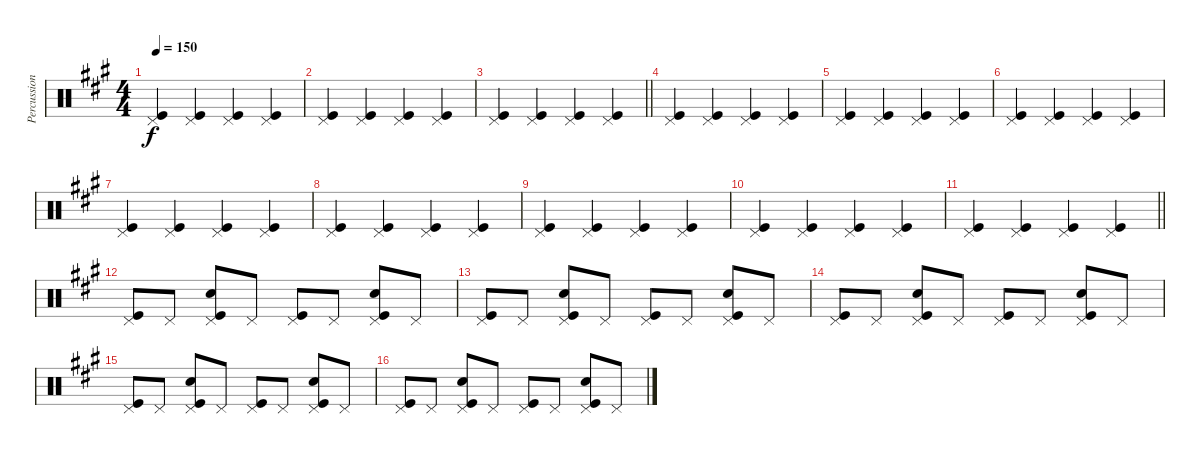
\track ("Percussions" "Percussion") {instrument percussion}
\staff {score}
\articulation defaults
\ts (4 4)
\tempo 150
\clef neutral
\ks a
("Pedal Hi-Hat (hit)" "Kick (hit)").4{dy f} ("Pedal Hi-Hat (hit)" "Kick (hit)").4 ("Pedal Hi-Hat (hit)" "Kick (hit)").4 ("Pedal Hi-Hat (hit)" "Kick (hit)").4 |
("Pedal Hi-Hat (hit)" "Kick (hit)").4 ("Pedal Hi-Hat (hit)" "Kick (hit)").4 ("Pedal Hi-Hat (hit)" "Kick (hit)").4 ("Pedal Hi-Hat (hit)" "Kick (hit)").4 |
\barLineRight lightlight
("Pedal Hi-Hat (hit)" "Kick (hit)").4 ("Pedal Hi-Hat (hit)" "Kick (hit)").4 ("Pedal Hi-Hat (hit)" "Kick (hit)").4 ("Pedal Hi-Hat (hit)" "Kick (hit)").4 |
("Pedal Hi-Hat (hit)" "Kick (hit)").4 ("Pedal Hi-Hat (hit)" "Kick (hit)").4 ("Pedal Hi-Hat (hit)" "Kick (hit)").4 ("Pedal Hi-Hat (hit)" "Kick (hit)").4 |
("Pedal Hi-Hat (hit)" "Kick (hit)").4 ("Pedal Hi-Hat (hit)" "Kick (hit)").4 ("Pedal Hi-Hat (hit)" "Kick (hit)").4 ("Pedal Hi-Hat (hit)" "Kick (hit)").4 |
("Pedal Hi-Hat (hit)" "Kick (hit)").4 ("Pedal Hi-Hat (hit)" "Kick (hit)").4 ("Pedal Hi-Hat (hit)" "Kick (hit)").4 ("Pedal Hi-Hat (hit)" "Kick (hit)").4 |
("Pedal Hi-Hat (hit)" "Kick (hit)").4 ("Pedal Hi-Hat (hit)" "Kick (hit)").4 ("Pedal Hi-Hat (hit)" "Kick (hit)").4 ("Pedal Hi-Hat (hit)" "Kick (hit)").4 |
("Pedal Hi-Hat (hit)" "Kick (hit)").4 ("Pedal Hi-Hat (hit)" "Kick (hit)").4 ("Pedal Hi-Hat (hit)" "Kick (hit)").4 ("Pedal Hi-Hat (hit)" "Kick (hit)").4 |
("Pedal Hi-Hat (hit)" "Kick (hit)").4 ("Pedal Hi-Hat (hit)" "Kick (hit)").4 ("Pedal Hi-Hat (hit)" "Kick (hit)").4 ("Pedal Hi-Hat (hit)" "Kick (hit)").4 |
("Pedal Hi-Hat (hit)" "Kick (hit)").4 ("Pedal Hi-Hat (hit)" "Kick (hit)").4 ("Pedal Hi-Hat (hit)" "Kick (hit)").4 ("Pedal Hi-Hat (hit)" "Kick (hit)").4 |
\barLineRight lightlight
("Pedal Hi-Hat (hit)" "Kick (hit)").4 ("Pedal Hi-Hat (hit)" "Kick (hit)").4 ("Pedal Hi-Hat (hit)" "Kick (hit)").4 ("Pedal Hi-Hat (hit)" "Kick (hit)").4 |
("Kick (hit)" "Pedal Hi-Hat (hit)").8 "Pedal Hi-Hat (hit)".8 ("Snare (hit) 2" "Kick (hit)" "Pedal Hi-Hat (hit)").8 "Pedal Hi-Hat (hit)".8 ("Kick (hit)" "Pedal Hi-Hat (hit)").8 "Pedal Hi-Hat (hit)".8 ("Snare (hit) 2" "Kick (hit)" "Pedal Hi-Hat (hit)").8 "Pedal Hi-Hat (hit)".8 |
("Kick (hit)" "Pedal Hi-Hat (hit)").8 "Pedal Hi-Hat (hit)".8 ("Snare (hit) 2" "Kick (hit)" "Pedal Hi-Hat (hit)").8 "Pedal Hi-Hat (hit)".8 ("Kick (hit)" "Pedal Hi-Hat (hit)").8 "Pedal Hi-Hat (hit)".8 ("Snare (hit) 2" "Kick (hit)" "Pedal Hi-Hat (hit)").8 "Pedal Hi-Hat (hit)".8 |
("Kick (hit)" "Pedal Hi-Hat (hit)").8 "Pedal Hi-Hat (hit)".8 ("Snare (hit) 2" "Kick (hit)" "Pedal Hi-Hat (hit)").8 "Pedal Hi-Hat (hit)".8 ("Kick (hit)" "Pedal Hi-Hat (hit)").8 "Pedal Hi-Hat (hit)".8 ("Snare (hit) 2" "Kick (hit)" "Pedal Hi-Hat (hit)").8 "Pedal Hi-Hat (hit)".8 |
("Kick (hit)" "Pedal Hi-Hat (hit)").8 "Pedal Hi-Hat (hit)".8 ("Snare (hit) 2" "Kick (hit)" "Pedal Hi-Hat (hit)").8 "Pedal Hi-Hat (hit)".8 ("Kick (hit)" "Pedal Hi-Hat (hit)").8 "Pedal Hi-Hat (hit)".8 ("Snare (hit) 2" "Kick (hit)" "Pedal Hi-Hat (hit)").8 "Pedal Hi-Hat (hit)".8 |
("Kick (hit)" "Pedal Hi-Hat (hit)").8 "Pedal Hi-Hat (hit)".8 ("Snare (hit) 2" "Kick (hit)" "Pedal Hi-Hat (hit)").8 "Pedal Hi-Hat (hit)".8 ("Kick (hit)" "Pedal Hi-Hat (hit)").8 "Pedal Hi-Hat (hit)".8 ("Snare (hit) 2" "Kick (hit)" "Pedal Hi-Hat (hit)").8 "Pedal Hi-Hat (hit)".8
